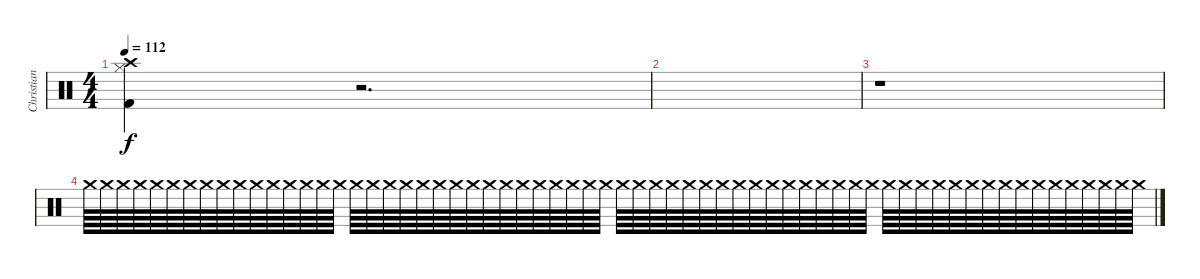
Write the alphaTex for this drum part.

\track ("Christian Paredes" "Christian ") {instrument percussion}
\staff {score}
\articulation defaults
\ts (4 4)
\tempo 112
\clef neutral
\ks c
("Hi-Hat (closed)" "Crash high (hit)" "Kick (hit) 2").4{dy f} r.2{d} |
|
r.1{volume 0} |
"Crash medium (hit)".64{volume 13} "Crash medium (hit)".64 "Crash medium (hit)".64 "Crash medium (hit)".64 "Crash medium (hit)".64 "Crash medium (hit)".64 "Crash medium (hit)".64 "Crash medium (hit)".64 "Crash medium (hit)".64 "Crash medium (hit)".64 "Crash medium (hit)".64 "Crash medium (hit)".64 "Crash medium (hit)".64 "Crash medium (hit)".64 "Crash medium (hit)".64 "Crash medium (hit)".64 "Crash medium (hit)".64 "Crash medium (hit)".64 "Crash medium (hit)".64 "Crash medium (hit)".64 "Crash medium (hit)".64 "Crash medium (hit)".64 "Crash medium (hit)".64 "Crash medium (hit)".64 "Crash medium (hit)".64 "Crash medium (hit)".64 "Crash medium (hit)".64 "Crash medium (hit)".64 "Crash medium (hit)".64 "Crash medium (hit)".64 "Crash medium (hit)".64 "Crash medium (hit)".64 "Crash medium (hit)".64 "Crash medium (hit)".64 "Crash medium (hit)".64 "Crash medium (hit)".64 "Crash medium (hit)".64 "Crash medium (hit)".64 "Crash medium (hit)".64 "Crash medium (hit)".64 "Crash medium (hit)".64 "Crash medium (hit)".64 "Crash medium (hit)".64 "Crash medium (hit)".64 "Crash medium (hit)".64 "Crash medium (hit)".64 "Crash medium (hit)".64 "Crash medium (hit)".64 "Crash medium (hit)".64 "Crash medium (hit)".64 "Crash medium (hit)".64 "Crash medium (hit)".64 "Crash medium (hit)".64 "Crash medium (hit)".64 "Crash medium (hit)".64 "Crash medium (hit)".64 "Crash medium (hit)".64 "Crash medium (hit)".64 "Crash medium (hit)".64 "Crash medium (hit)".64 "Crash medium (hit)".64 "Crash medium (hit)".64 "Crash medium (hit)".64 "Crash medium (hit)".64
